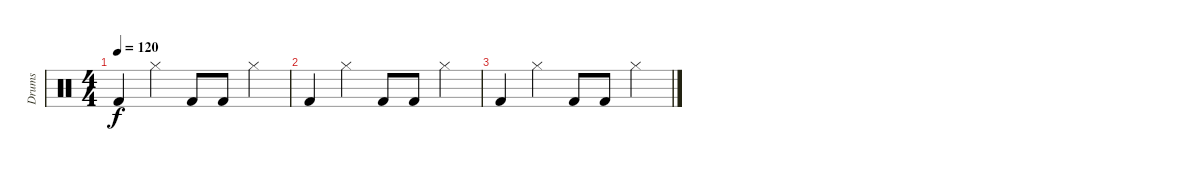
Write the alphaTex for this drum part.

\track ("Drums" "Drums") {instrument percussion}
\staff {score}
\articulation defaults
\ts (4 4)
\tempo 120
\clef neutral
\ks c "Kick (hit) 2".4{dy f} "Hi-Hat (closed)".4 "Kick (hit) 2".8 "Kick (hit) 2".8 "Hi-Hat (closed)".4
|
"Kick (hit) 2".4 "Hi-Hat (closed)".4 "Kick (hit) 2".8 "Kick (hit) 2".8 "Hi-Hat (closed)".4 |
"Kick (hit) 2".4 "Hi-Hat (closed)".4 "Kick (hit) 2".8 "Kick (hit) 2".8 "Hi-Hat (closed)".4
